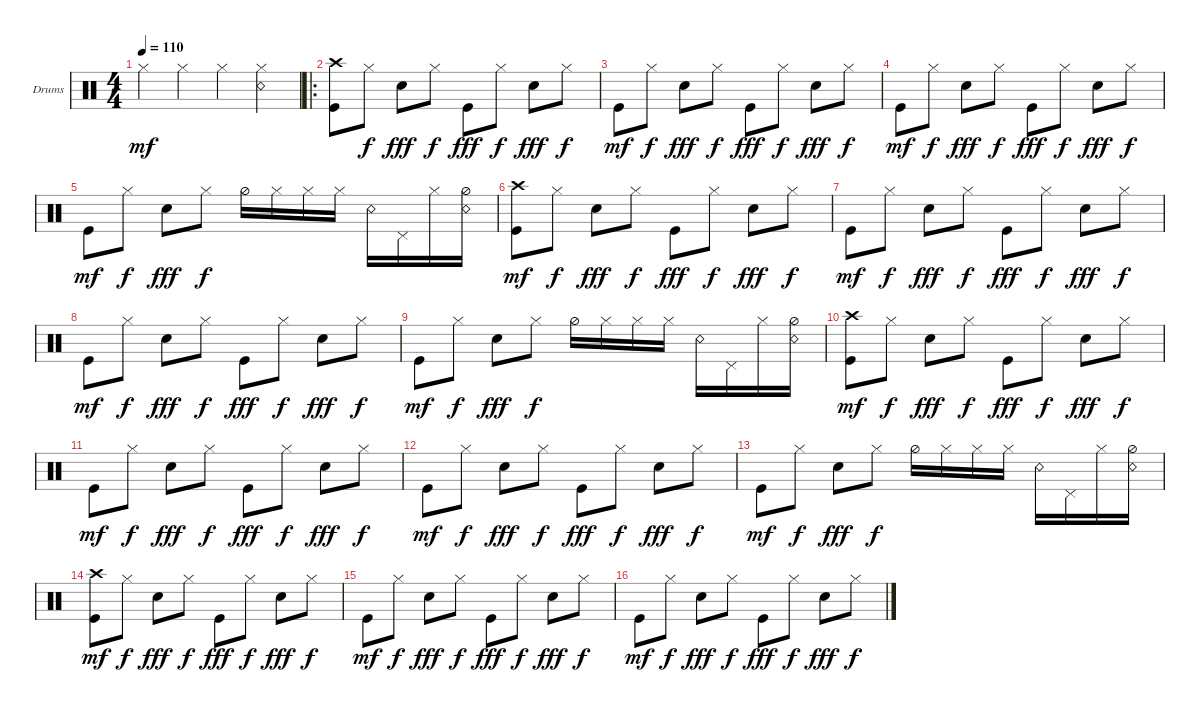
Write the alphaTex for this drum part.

\defaultSystemsLayout 4
\bracketExtendMode groupsimilarinstruments
\firstSystemTrackNameOrientation horizontal
\otherSystemsTrackNameOrientation horizontal
\track ("Drumkit" "Drums") {instrument percussion}
\staff {score}
\articulation defaults
\ts (4 4)
\tempo 110
\clef neutral
\ks c "Hi-Hat (closed)".4{dy mf} "Hi-Hat (closed)".4 "Hi-Hat (closed)".4
("Hi-Hat (closed)" "Snare (rim shot)").4 |
\ro
("Crash high (hit)" "Kick (hit)").8 "Hi-Hat (closed)".8{dy f} "Snare (hit) 2".8{dy fff} "Hi-Hat (closed)".8{dy f} "Kick (hit)".8{dy fff} "Hi-Hat (closed)".8{dy f} "Snare (hit) 2".8{dy fff} "Hi-Hat (closed)".8{dy f} |
"Kick (hit)".8{dy mf} "Hi-Hat (closed)".8{dy f} "Snare (hit) 2".8{dy fff} "Hi-Hat (closed)".8{dy f} "Kick (hit)".8{dy fff} "Hi-Hat (closed)".8{dy f} "Snare (hit) 2".8{dy fff} "Hi-Hat (closed)".8{dy f} |
"Kick (hit)".8{dy mf} "Hi-Hat (closed)".8{dy f} "Snare (hit) 2".8{dy fff} "Hi-Hat (closed)".8{dy f} "Kick (hit)".8{dy fff} "Hi-Hat (closed)".8{dy f} "Snare (hit) 2".8{dy fff} "Hi-Hat (closed)".8{dy f} |
"Kick (hit)".8{dy mf} "Hi-Hat (closed)".8{dy f} "Snare (hit) 2".8{dy fff} "Hi-Hat (closed)".8{dy f} "Hi-Hat (half)".16 "Hi-Hat (closed)".16 "Hi-Hat (closed)".16 "Hi-Hat (closed)".16 "Snare (rim shot)".16 "Pedal Hi-Hat (hit)".16 "Hi-Hat (closed)".16 ("Hi-Hat (half)" "Snare (rim shot)").16 |
("Crash high (hit)" "Kick (hit)").8{dy mf} "Hi-Hat (closed)".8{dy f} "Snare (hit) 2".8{dy fff} "Hi-Hat (closed)".8{dy f} "Kick (hit)".8{dy fff} "Hi-Hat (closed)".8{dy f} "Snare (hit) 2".8{dy fff} "Hi-Hat (closed)".8{dy f} |
"Kick (hit)".8{dy mf} "Hi-Hat (closed)".8{dy f} "Snare (hit) 2".8{dy fff} "Hi-Hat (closed)".8{dy f} "Kick (hit)".8{dy fff} "Hi-Hat (closed)".8{dy f} "Snare (hit) 2".8{dy fff} "Hi-Hat (closed)".8{dy f} |
"Kick (hit)".8{dy mf} "Hi-Hat (closed)".8{dy f} "Snare (hit) 2".8{dy fff} "Hi-Hat (closed)".8{dy f} "Kick (hit)".8{dy fff} "Hi-Hat (closed)".8{dy f} "Snare (hit) 2".8{dy fff} "Hi-Hat (closed)".8{dy f} |
"Kick (hit)".8{dy mf} "Hi-Hat (closed)".8{dy f} "Snare (hit) 2".8{dy fff} "Hi-Hat (closed)".8{dy f} "Hi-Hat (half)".16 "Hi-Hat (closed)".16 "Hi-Hat (closed)".16 "Hi-Hat (closed)".16 "Snare (rim shot)".16 "Pedal Hi-Hat (hit)".16 "Hi-Hat (closed)".16 ("Hi-Hat (half)" "Snare (rim shot)").16 |
("Crash high (hit)" "Kick (hit)").8{dy mf} "Hi-Hat (closed)".8{dy f} "Snare (hit) 2".8{dy fff} "Hi-Hat (closed)".8{dy f} "Kick (hit)".8{dy fff} "Hi-Hat (closed)".8{dy f} "Snare (hit) 2".8{dy fff} "Hi-Hat (closed)".8{dy f} |
"Kick (hit)".8{dy mf} "Hi-Hat (closed)".8{dy f} "Snare (hit) 2".8{dy fff} "Hi-Hat (closed)".8{dy f} "Kick (hit)".8{dy fff} "Hi-Hat (closed)".8{dy f} "Snare (hit) 2".8{dy fff} "Hi-Hat (closed)".8{dy f} |
"Kick (hit)".8{dy mf} "Hi-Hat (closed)".8{dy f} "Snare (hit) 2".8{dy fff} "Hi-Hat (closed)".8{dy f} "Kick (hit)".8{dy fff} "Hi-Hat (closed)".8{dy f} "Snare (hit) 2".8{dy fff} "Hi-Hat (closed)".8{dy f} |
"Kick (hit)".8{dy mf} "Hi-Hat (closed)".8{dy f} "Snare (hit) 2".8{dy fff} "Hi-Hat (closed)".8{dy f} "Hi-Hat (half)".16 "Hi-Hat (closed)".16 "Hi-Hat (closed)".16 "Hi-Hat (closed)".16 "Snare (rim shot)".16 "Pedal Hi-Hat (hit)".16 "Hi-Hat (closed)".16 ("Hi-Hat (half)" "Snare (rim shot)").16 |
("Crash high (hit)" "Kick (hit)").8{dy mf} "Hi-Hat (closed)".8{dy f} "Snare (hit) 2".8{dy fff} "Hi-Hat (closed)".8{dy f} "Kick (hit)".8{dy fff} "Hi-Hat (closed)".8{dy f} "Snare (hit) 2".8{dy fff} "Hi-Hat (closed)".8{dy f} |
"Kick (hit)".8{dy mf} "Hi-Hat (closed)".8{dy f} "Snare (hit) 2".8{dy fff} "Hi-Hat (closed)".8{dy f} "Kick (hit)".8{dy fff} "Hi-Hat (closed)".8{dy f} "Snare (hit) 2".8{dy fff} "Hi-Hat (closed)".8{dy f} |
"Kick (hit)".8{dy mf} "Hi-Hat (closed)".8{dy f} "Snare (hit) 2".8{dy fff} "Hi-Hat (closed)".8{dy f} "Kick (hit)".8{dy fff} "Hi-Hat (closed)".8{dy f} "Snare (hit) 2".8{dy fff} "Hi-Hat (closed)".8{dy f}
